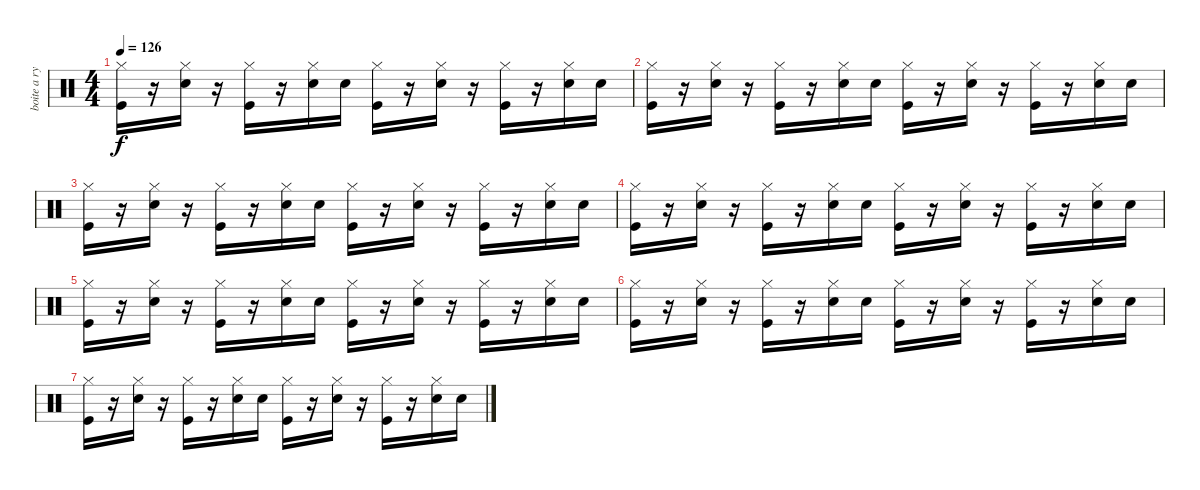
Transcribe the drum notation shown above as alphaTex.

\track ("boite a rythme ( Jean-Francois ) " "boite a ry") {instrument percussion}
\staff {score}
\articulation defaults
\ts (4 4)
\tempo 126
\clef neutral
\ks c
("Hi-Hat (closed)" "Kick (hit)").16{dy f} r.16 ("Hi-Hat (closed)" "Snare (hit) 2").16 r.16 ("Hi-Hat (closed)" "Kick (hit)").16 r.16 ("Hi-Hat (closed)" "Snare (hit) 2").16 "Snare (hit) 2".16 ("Hi-Hat (closed)" "Kick (hit)").16 r.16 ("Hi-Hat (closed)" "Snare (hit) 2").16 r.16 ("Hi-Hat (closed)" "Kick (hit)").16 r.16 ("Hi-Hat (closed)" "Snare (hit) 2").16 "Snare (hit) 2".16 |
("Hi-Hat (closed)" "Kick (hit)").16 r.16 ("Hi-Hat (closed)" "Snare (hit) 2").16 r.16 ("Hi-Hat (closed)" "Kick (hit)").16 r.16 ("Hi-Hat (closed)" "Snare (hit) 2").16 "Snare (hit) 2".16 ("Hi-Hat (closed)" "Kick (hit)").16 r.16 ("Hi-Hat (closed)" "Snare (hit) 2").16 r.16 ("Hi-Hat (closed)" "Kick (hit)").16 r.16 ("Hi-Hat (closed)" "Snare (hit) 2").16 "Snare (hit) 2".16 |
("Hi-Hat (closed)" "Kick (hit)").16 r.16 ("Hi-Hat (closed)" "Snare (hit) 2").16 r.16 ("Hi-Hat (closed)" "Kick (hit)").16 r.16 ("Hi-Hat (closed)" "Snare (hit) 2").16 "Snare (hit) 2".16 ("Hi-Hat (closed)" "Kick (hit)").16 r.16 ("Hi-Hat (closed)" "Snare (hit) 2").16 r.16 ("Hi-Hat (closed)" "Kick (hit)").16 r.16 ("Hi-Hat (closed)" "Snare (hit) 2").16 "Snare (hit) 2".16 |
("Hi-Hat (closed)" "Kick (hit)").16 r.16 ("Hi-Hat (closed)" "Snare (hit) 2").16 r.16 ("Hi-Hat (closed)" "Kick (hit)").16 r.16 ("Hi-Hat (closed)" "Snare (hit) 2").16 "Snare (hit) 2".16 ("Hi-Hat (closed)" "Kick (hit)").16 r.16 ("Hi-Hat (closed)" "Snare (hit) 2").16 r.16 ("Hi-Hat (closed)" "Kick (hit)").16 r.16 ("Hi-Hat (closed)" "Snare (hit) 2").16 "Snare (hit) 2".16 |
("Hi-Hat (closed)" "Kick (hit)").16 r.16 ("Hi-Hat (closed)" "Snare (hit) 2").16 r.16 ("Hi-Hat (closed)" "Kick (hit)").16 r.16 ("Hi-Hat (closed)" "Snare (hit) 2").16 "Snare (hit) 2".16 ("Hi-Hat (closed)" "Kick (hit)").16 r.16 ("Hi-Hat (closed)" "Snare (hit) 2").16 r.16 ("Hi-Hat (closed)" "Kick (hit)").16 r.16 ("Hi-Hat (closed)" "Snare (hit) 2").16 "Snare (hit) 2".16 |
("Hi-Hat (closed)" "Kick (hit)").16 r.16 ("Hi-Hat (closed)" "Snare (hit) 2").16 r.16 ("Hi-Hat (closed)" "Kick (hit)").16 r.16 ("Hi-Hat (closed)" "Snare (hit) 2").16 "Snare (hit) 2".16 ("Hi-Hat (closed)" "Kick (hit)").16 r.16 ("Hi-Hat (closed)" "Snare (hit) 2").16 r.16 ("Hi-Hat (closed)" "Kick (hit)").16 r.16 ("Hi-Hat (closed)" "Snare (hit) 2").16 "Snare (hit) 2".16 |
("Hi-Hat (closed)" "Kick (hit)").16 r.16 ("Hi-Hat (closed)" "Snare (hit) 2").16 r.16 ("Hi-Hat (closed)" "Kick (hit)").16 r.16 ("Hi-Hat (closed)" "Snare (hit) 2").16 "Snare (hit) 2".16 ("Hi-Hat (closed)" "Kick (hit)").16 r.16 ("Hi-Hat (closed)" "Snare (hit) 2").16 r.16 ("Hi-Hat (closed)" "Kick (hit)").16 r.16 ("Hi-Hat (closed)" "Snare (hit) 2").16 "Snare (hit) 2".16
